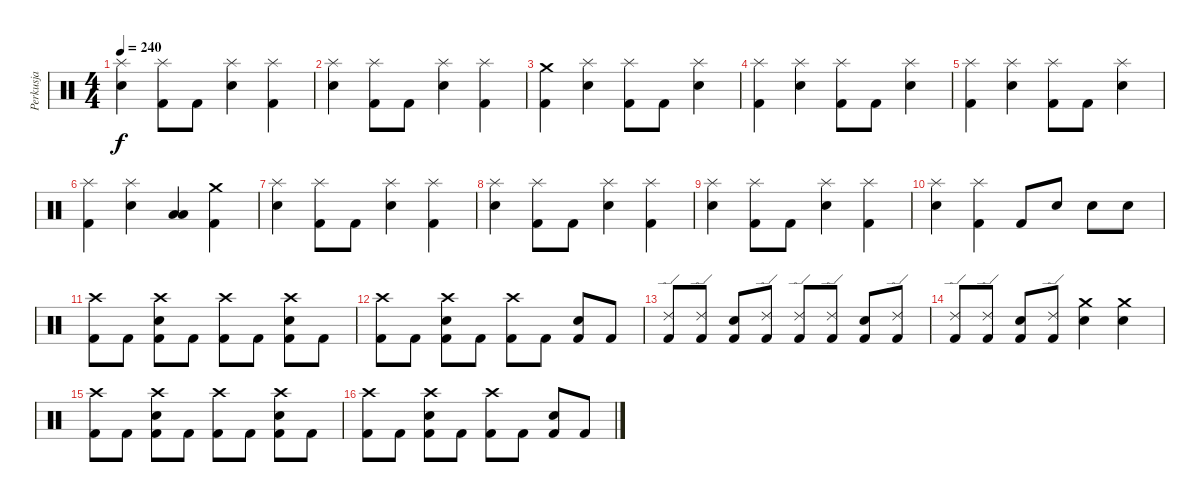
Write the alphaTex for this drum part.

\track ("Perkusja" "Perkusja") {instrument percussion}
\staff {score}
\articulation defaults
\ts (4 4)
\tempo 240
\clef neutral
\ks c
("Splash (hit)" "Snare (hit) 2").4{dy f} ("Splash (hit)" "Kick (hit) 2").8 "Kick (hit) 2".8 ("Splash (hit)" "Snare (hit) 2").4 ("Splash (hit)" "Kick (hit) 2").4 |
("Splash (hit)" "Snare (hit) 2").4 ("Splash (hit)" "Kick (hit) 2").8 "Kick (hit) 2".8 ("Splash (hit)" "Snare (hit) 2").4 ("Splash (hit)" "Kick (hit) 2").4 |
("Crash medium (hit)" "Kick (hit) 2").4 ("Splash (hit)" "Snare (hit) 2").4 ("Splash (hit)" "Kick (hit) 2").8 "Kick (hit) 2".8 ("Splash (hit)" "Snare (hit) 2").4 |
("Splash (hit)" "Kick (hit) 2").4 ("Splash (hit)" "Snare (hit) 2").4 ("Splash (hit)" "Kick (hit) 2").8 "Kick (hit) 2".8 ("Splash (hit)" "Snare (hit) 2").4 |
("Splash (hit)" "Kick (hit) 2").4 ("Splash (hit)" "Snare (hit) 2").4 ("Splash (hit)" "Kick (hit) 2").8 "Kick (hit) 2".8 ("Splash (hit)" "Snare (hit) 2").4 |
("Splash (hit)" "Kick (hit) 2").4 ("Splash (hit)" "Snare (hit) 2").4 ("Low Tom (hit)" "Low Tom (hit)").4 ("Crash medium (hit)" "Kick (hit) 2").4 |
("Splash (hit)" "Snare (hit) 2").4 ("Splash (hit)" "Kick (hit) 2").8 "Kick (hit) 2".8 ("Splash (hit)" "Snare (hit) 2").4 ("Splash (hit)" "Kick (hit) 2").4 |
("Splash (hit)" "Snare (hit) 2").4 ("Splash (hit)" "Kick (hit) 2").8 "Kick (hit) 2".8 ("Splash (hit)" "Snare (hit) 2").4 ("Splash (hit)" "Kick (hit) 2").4 |
("Splash (hit)" "Snare (hit) 2").4 ("Splash (hit)" "Kick (hit) 2").8 "Kick (hit) 2".8 ("Splash (hit)" "Snare (hit) 2").4 ("Splash (hit)" "Kick (hit) 2").4 |
("Splash (hit)" "Snare (hit) 2").4 ("Splash (hit)" "Kick (hit) 2").4 "Kick (hit) 2".8 "Snare (hit) 2".8 "Snare (hit) 2".8 "Snare (hit) 2".8 |
("Crash high (hit)" "Kick (hit) 2").8 "Kick (hit) 2".8 ("Crash high (hit)" "Snare (hit) 2" "Kick (hit) 2").8 "Kick (hit) 2".8 ("Crash high (hit)" "Kick (hit) 2").8 "Kick (hit) 2".8 ("Crash high (hit)" "Snare (hit) 2" "Kick (hit) 2").8 "Kick (hit) 2".8 |
("Crash high (hit)" "Kick (hit) 2").8 "Kick (hit) 2".8 ("Crash high (hit)" "Snare (hit) 2" "Kick (hit) 2").8 "Kick (hit) 2".8 ("Crash high (hit)" "Kick (hit) 2").8 "Kick (hit) 2".8 ("Snare (hit) 2" "Kick (hit) 2").8 "Kick (hit) 2".8 |
("Ride (edge) 2" "Kick (hit) 2").8 ("Ride (edge) 2" "Kick (hit) 2").8 ("Snare (hit) 2" "Kick (hit) 2").8 ("Ride (edge) 2" "Kick (hit) 2").8 ("Ride (edge) 2" "Kick (hit) 2").8 ("Ride (edge) 2" "Kick (hit) 2").8 ("Snare (hit) 2" "Kick (hit) 2").8 ("Ride (edge) 2" "Kick (hit) 2").8 |
("Ride (edge) 2" "Kick (hit) 2").8 ("Ride (edge) 2" "Kick (hit) 2").8 ("Snare (hit) 2" "Kick (hit) 2").8 ("Ride (edge) 2" "Kick (hit) 2").8 ("Crash medium (hit)" "Snare (hit) 2").4 ("Crash medium (hit)" "Snare (hit) 2").4 |
("Crash high (hit)" "Kick (hit) 2").8 "Kick (hit) 2".8 ("Crash high (hit)" "Snare (hit) 2" "Kick (hit) 2").8 "Kick (hit) 2".8 ("Crash high (hit)" "Kick (hit) 2").8 "Kick (hit) 2".8 ("Crash high (hit)" "Snare (hit) 2" "Kick (hit) 2").8 "Kick (hit) 2".8 |
("Crash high (hit)" "Kick (hit) 2").8 "Kick (hit) 2".8 ("Crash high (hit)" "Snare (hit) 2" "Kick (hit) 2").8 "Kick (hit) 2".8 ("Crash high (hit)" "Kick (hit) 2").8 "Kick (hit) 2".8 ("Snare (hit) 2" "Kick (hit) 2").8 "Kick (hit) 2".8
